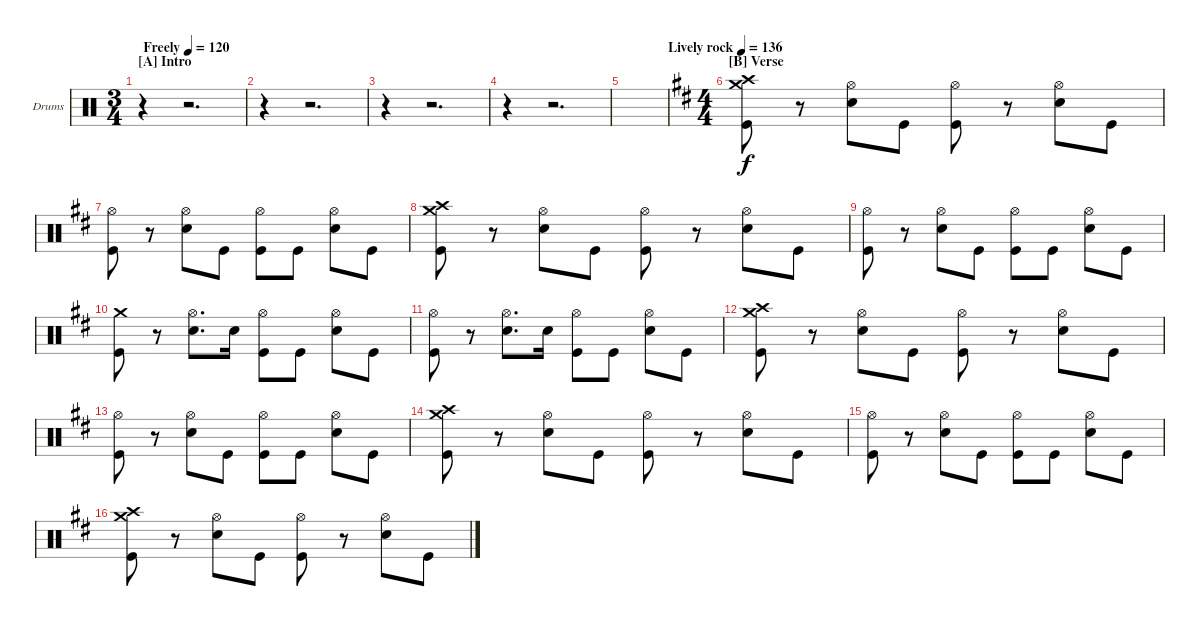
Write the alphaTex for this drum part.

\defaultSystemsLayout 4
\bracketExtendMode groupsimilarinstruments
\firstSystemTrackNameOrientation horizontal
\otherSystemsTrackNameOrientation horizontal
\track ("Drumkit" "Drums") {instrument percussion}
\staff {score}
\articulation defaults
\ts (3 4)
\section ("A" "Intro")
\tempo (120 "Freely")
\clef neutral
\scale
1.05675
\ks c
r.4{dy f} r.2{d} |
\scale
0.943253 r.4 r.2{d} |
\scale
1.02648 r.4 r.2{d} |
\scale
0.973518 r.4 r.2{d} |
\tempo (136 "Lively rock" 0.99375)
\scale
1.02648 |
\ts (4 4)
\section ("B" "Verse")
\scale
0.973518
\ks d
("Crash high (hit)" "Crash medium (hit)" "Kick (hit)").8 r.8 ("Hi-Hat (open)" "Snare (hit) 2").8 "Kick (hit)".8 ("Hi-Hat (open)" "Kick (hit)").8 r.8 ("Hi-Hat (open)" "Snare (hit) 2").8 "Kick (hit)".8 |
\scale
1.05044 ("Hi-Hat (open)" "Kick (hit)").8 r.8 ("Hi-Hat (open)" "Snare (hit) 2").8 "Kick (hit)".8 ("Hi-Hat (open)" "Kick (hit)").8 "Kick (hit)".8 ("Hi-Hat (open)" "Snare (hit) 2").8 "Kick (hit)".8 |
\scale
0.949559 ("Crash high (hit)" "Crash medium (hit)" "Kick (hit)").8 r.8 ("Hi-Hat (open)" "Snare (hit) 2").8 "Kick (hit)".8 ("Hi-Hat (open)" "Kick (hit)").8 r.8 ("Hi-Hat (open)" "Snare (hit) 2").8 "Kick (hit)".8 |
\scale
1.05044 ("Hi-Hat (open)" "Kick (hit)").8 r.8 ("Hi-Hat (open)" "Snare (hit) 2").8 "Kick (hit)".8 ("Hi-Hat (open)" "Kick (hit)").8 "Kick (hit)".8 ("Hi-Hat (open)" "Snare (hit) 2").8 "Kick (hit)".8 |
\scale
0.949559 ("Crash medium (hit)" "Kick (hit)").8 r.8 ("Hi-Hat (open)" "Snare (hit) 2").8{d} "Snare (hit) 2".16 ("Hi-Hat (open)" "Kick (hit)").8 "Kick (hit)".8 ("Hi-Hat (open)" "Snare (hit) 2").8 "Kick (hit)".8 |
\scale
1.05044 ("Hi-Hat (open)" "Kick (hit)").8 r.8 ("Hi-Hat (open)" "Snare (hit) 2").8{d} "Snare (hit) 2".16 ("Hi-Hat (open)" "Kick (hit)").8 "Kick (hit)".8 ("Hi-Hat (open)" "Snare (hit) 2").8 "Kick (hit)".8 |
\scale
0.949559 ("Crash high (hit)" "Crash medium (hit)" "Kick (hit)").8 r.8 ("Hi-Hat (open)" "Snare (hit) 2").8 "Kick (hit)".8 ("Hi-Hat (open)" "Kick (hit)").8 r.8 ("Hi-Hat (open)" "Snare (hit) 2").8 "Kick (hit)".8 |
\scale
1.05044 ("Hi-Hat (open)" "Kick (hit)").8 r.8 ("Hi-Hat (open)" "Snare (hit) 2").8 "Kick (hit)".8 ("Hi-Hat (open)" "Kick (hit)").8 "Kick (hit)".8 ("Hi-Hat (open)" "Snare (hit) 2").8 "Kick (hit)".8 |
\scale
0.949559 ("Crash high (hit)" "Crash medium (hit)" "Kick (hit)").8 r.8 ("Hi-Hat (open)" "Snare (hit) 2").8 "Kick (hit)".8 ("Hi-Hat (open)" "Kick (hit)").8 r.8 ("Hi-Hat (open)" "Snare (hit) 2").8 "Kick (hit)".8 |
\scale
1.05044 ("Hi-Hat (open)" "Kick (hit)").8 r.8 ("Hi-Hat (open)" "Snare (hit) 2").8 "Kick (hit)".8 ("Hi-Hat (open)" "Kick (hit)").8 "Kick (hit)".8 ("Hi-Hat (open)" "Snare (hit) 2").8 "Kick (hit)".8 |
\scale
0.949559 ("Crash high (hit)" "Crash medium (hit)" "Kick (hit)").8 r.8 ("Hi-Hat (open)" "Snare (hit) 2").8 "Kick (hit)".8 ("Hi-Hat (open)" "Kick (hit)").8 r.8 ("Hi-Hat (open)" "Snare (hit) 2").8 "Kick (hit)".8
